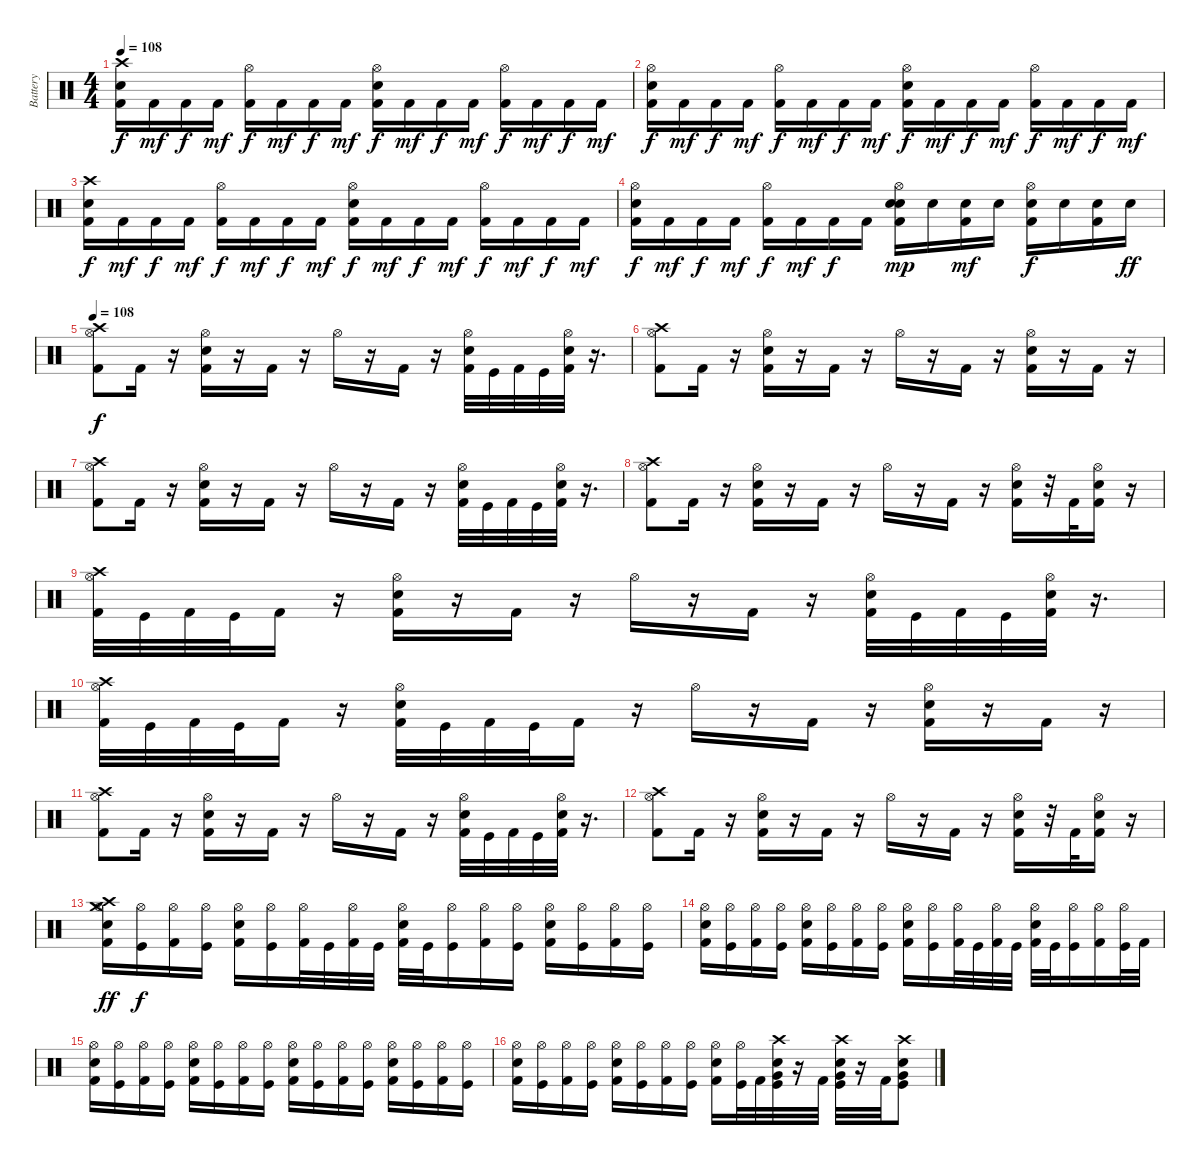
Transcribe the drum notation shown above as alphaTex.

\track ("Battery" "Battery") {instrument percussion}
\staff {score}
\articulation defaults
\ts (4 4)
\tempo 108
\clef neutral
\ks c
("Electric Snare (hit)" "Kick (hit) 2" "Crash high (hit)").16{dy f} "Kick (hit) 2".16{dy mf} "Kick (hit) 2".16{dy f} "Kick (hit) 2".16{dy mf} ("Kick (hit) 2" "Hi-Hat (open)").16{dy f} "Kick (hit) 2".16{dy mf} "Kick (hit) 2".16{dy f} "Kick (hit) 2".16{dy mf} ("Electric Snare (hit)" "Kick (hit) 2" "Hi-Hat (open)").16{dy f} "Kick (hit) 2".16{dy mf} "Kick (hit) 2".16{dy f} "Kick (hit) 2".16{dy mf} ("Hi-Hat (open)" "Kick (hit) 2").16{dy f} "Kick (hit) 2".16{dy mf} "Kick (hit) 2".16{dy f} "Kick (hit) 2".16{dy mf} |
("Hi-Hat (open)" "Kick (hit) 2" "Electric Snare (hit)").16{dy f} "Kick (hit) 2".16{dy mf} "Kick (hit) 2".16{dy f} "Kick (hit) 2".16{dy mf} ("Kick (hit) 2" "Hi-Hat (open)").16{dy f} "Kick (hit) 2".16{dy mf} "Kick (hit) 2".16{dy f} "Kick (hit) 2".16{dy mf} ("Kick (hit) 2" "Hi-Hat (open)" "Electric Snare (hit)").16{dy f} "Kick (hit) 2".16{dy mf} "Kick (hit) 2".16{dy f} "Kick (hit) 2".16{dy mf} ("Kick (hit) 2" "Hi-Hat (open)").16{dy f} "Kick (hit) 2".16{dy mf} "Kick (hit) 2".16{dy f} "Kick (hit) 2".16{dy mf} |
("Electric Snare (hit)" "Kick (hit) 2" "Crash high (hit)").16{dy f} "Kick (hit) 2".16{dy mf} "Kick (hit) 2".16{dy f} "Kick (hit) 2".16{dy mf} ("Kick (hit) 2" "Hi-Hat (open)").16{dy f} "Kick (hit) 2".16{dy mf} "Kick (hit) 2".16{dy f} "Kick (hit) 2".16{dy mf} ("Electric Snare (hit)" "Kick (hit) 2" "Hi-Hat (open)").16{dy f} "Kick (hit) 2".16{dy mf} "Kick (hit) 2".16{dy f} "Kick (hit) 2".16{dy mf} ("Hi-Hat (open)" "Kick (hit) 2").16{dy f} "Kick (hit) 2".16{dy mf} "Kick (hit) 2".16{dy f} "Kick (hit) 2".16{dy mf} |
("Hi-Hat (open)" "Kick (hit) 2" "Electric Snare (hit)").16{dy f} "Kick (hit) 2".16{dy mf} "Kick (hit) 2".16{dy f} "Kick (hit) 2".16{dy mf} ("Kick (hit) 2" "Hi-Hat (open)").16{dy f} "Kick (hit) 2".16{dy mf} "Kick (hit) 2".16{dy f} "Kick (hit) 2".16 ("Kick (hit) 2" "Hi-Hat (open)" "Electric Snare (hit)" "Electric Snare (hit)").16{dy mp} "Electric Snare (hit)".16 ("Kick (hit) 2" "Electric Snare (hit)").16{dy mf} "Electric Snare (hit)".16 ("Kick (hit) 2" "Hi-Hat (open)" "Electric Snare (hit)").16{dy f} "Electric Snare (hit)".16 ("Kick (hit) 2" "Electric Snare (hit)").16 "Electric Snare (hit)".16{dy ff} |
\tempo 108
("Kick (hit) 2" "Crash high (hit)" "Hi-Hat (open)").8{dy f} "Kick (hit) 2".16 r.16 ("Hi-Hat (open)" "Kick (hit) 2" "Electric Snare (hit)").16 r.16 "Kick (hit) 2".16 r.16 "Hi-Hat (open)".16 r.16 "Kick (hit) 2".16 r.16 ("Kick (hit) 2" "Electric Snare (hit)" "Hi-Hat (open)").32 "Kick (hit)".32 "Kick (hit) 2".32 "Kick (hit)".32 ("Hi-Hat (open)" "Electric Snare (hit)" "Kick (hit) 2").32 r.16{d} |
("Crash high (hit)" "Kick (hit) 2" "Hi-Hat (open)").8 "Kick (hit) 2".16 r.16 ("Hi-Hat (open)" "Kick (hit) 2" "Electric Snare (hit)").16 r.16 "Kick (hit) 2".16 r.16 "Hi-Hat (open)".16 r.16 "Kick (hit) 2".16 r.16 ("Kick (hit) 2" "Electric Snare (hit)" "Hi-Hat (open)").16 r.16 "Kick (hit) 2".16 r.16 |
("Kick (hit) 2" "Crash high (hit)" "Hi-Hat (open)").8 "Kick (hit) 2".16 r.16 ("Hi-Hat (open)" "Kick (hit) 2" "Electric Snare (hit)").16 r.16 "Kick (hit) 2".16 r.16 "Hi-Hat (open)".16 r.16 "Kick (hit) 2".16 r.16 ("Kick (hit) 2" "Electric Snare (hit)" "Hi-Hat (open)").32 "Kick (hit)".32 "Kick (hit) 2".32 "Kick (hit)".32 ("Hi-Hat (open)" "Electric Snare (hit)" "Kick (hit) 2").32 r.16{d} |
("Crash high (hit)" "Kick (hit) 2" "Hi-Hat (open)").8 "Kick (hit) 2".16 r.16 ("Hi-Hat (open)" "Kick (hit) 2" "Electric Snare (hit)").16 r.16 "Kick (hit) 2".16 r.16 "Hi-Hat (open)".16 r.16 "Kick (hit) 2".16 r.16 ("Kick (hit) 2" "Electric Snare (hit)" "Hi-Hat (open)").16 r.32 "Kick (hit) 2".32 ("Electric Snare (hit)" "Hi-Hat (open)" "Kick (hit) 2").16 r.16 |
("Kick (hit) 2" "Crash high (hit)" "Hi-Hat (open)").32 "Kick (hit)".32 "Kick (hit) 2".32 "Kick (hit)".32 "Kick (hit) 2".16 r.16 ("Hi-Hat (open)" "Kick (hit) 2" "Electric Snare (hit)").16 r.16 "Kick (hit) 2".16 r.16 "Hi-Hat (open)".16 r.16 "Kick (hit) 2".16 r.16 ("Kick (hit) 2" "Electric Snare (hit)" "Hi-Hat (open)").32 "Kick (hit)".32 "Kick (hit) 2".32 "Kick (hit)".32 ("Hi-Hat (open)" "Electric Snare (hit)" "Kick (hit) 2").32 r.16{d} |
("Crash high (hit)" "Kick (hit) 2" "Hi-Hat (open)").32 "Kick (hit)".32 "Kick (hit) 2".32 "Kick (hit)".32 "Kick (hit) 2".16 r.16 ("Hi-Hat (open)" "Kick (hit) 2" "Electric Snare (hit)").32 "Kick (hit)".32 "Kick (hit) 2".32 "Kick (hit)".32 "Kick (hit) 2".16 r.16 "Hi-Hat (open)".16 r.16 "Kick (hit) 2".16 r.16 ("Kick (hit) 2" "Electric Snare (hit)" "Hi-Hat (open)").16 r.16 "Kick (hit) 2".16 r.16 |
("Kick (hit) 2" "Crash high (hit)" "Hi-Hat (open)").8 "Kick (hit) 2".16 r.16 ("Hi-Hat (open)" "Kick (hit) 2" "Electric Snare (hit)").16 r.16 "Kick (hit) 2".16 r.16 "Hi-Hat (open)".16 r.16 "Kick (hit) 2".16 r.16 ("Kick (hit) 2" "Electric Snare (hit)" "Hi-Hat (open)").32 "Kick (hit)".32 "Kick (hit) 2".32 "Kick (hit)".32 ("Hi-Hat (open)" "Electric Snare (hit)" "Kick (hit) 2").32 r.16{d} |
("Crash high (hit)" "Kick (hit) 2" "Hi-Hat (open)").8 "Kick (hit) 2".16 r.16 ("Hi-Hat (open)" "Kick (hit) 2" "Electric Snare (hit)").16 r.16 "Kick (hit) 2".16 r.16 "Hi-Hat (open)".16 r.16 "Kick (hit) 2".16 r.16 ("Kick (hit) 2" "Electric Snare (hit)" "Hi-Hat (open)").16 r.32 "Kick (hit) 2".32 ("Electric Snare (hit)" "Hi-Hat (open)" "Kick (hit) 2").16 r.16 |
("Kick (hit) 2" "Electric Snare (hit)" "Hi-Hat (open)" "Crash high (hit)" "Crash medium (hit)").16{dy ff} ("Kick (hit)" "Hi-Hat (open)").16{dy f} ("Kick (hit) 2" "Hi-Hat (open)").16 ("Hi-Hat (open)" "Kick (hit)").16 ("Electric Snare (hit)" "Hi-Hat (open)" "Kick (hit) 2").16 ("Kick (hit)" "Hi-Hat (open)").16 ("Kick (hit) 2" "Hi-Hat (open)").32 "Kick (hit)".32 ("Hi-Hat (open)" "Kick (hit) 2").32 "Kick (hit)".32 ("Electric Snare (hit)" "Kick (hit) 2" "Hi-Hat (open)").32 "Kick (hit)".32 ("Hi-Hat (open)" "Kick (hit)").16 ("Hi-Hat (open)" "Kick (hit) 2").16 ("Hi-Hat (open)" "Kick (hit)").16 ("Kick (hit) 2" "Hi-Hat (open)" "Electric Snare (hit)").16 ("Hi-Hat (open)" "Kick (hit)").16 ("Hi-Hat (open)" "Kick (hit) 2").16 ("Kick (hit)" "Hi-Hat (open)").16 |
("Electric Snare (hit)" "Kick (hit) 2" "Hi-Hat (open)").16 ("Kick (hit)" "Hi-Hat (open)").16 ("Hi-Hat (open)" "Kick (hit) 2").16 ("Kick (hit)" "Hi-Hat (open)").16 ("Kick (hit) 2" "Electric Snare (hit)" "Hi-Hat (open)").16 ("Kick (hit)" "Hi-Hat (open)").16 ("Kick (hit) 2" "Hi-Hat (open)").16 ("Hi-Hat (open)" "Kick (hit)").16 ("Hi-Hat (open)" "Kick (hit) 2" "Electric Snare (hit)").16 ("Kick (hit)" "Hi-Hat (open)").16 ("Kick (hit) 2" "Hi-Hat (open)").32 "Kick (hit)".32 ("Kick (hit) 2" "Hi-Hat (open)").32 "Kick (hit)".32 ("Kick (hit) 2" "Electric Snare (hit)" "Hi-Hat (open)").32 "Kick (hit)".32 ("Hi-Hat (open)" "Kick (hit)").16 ("Kick (hit) 2" "Hi-Hat (open)").16 ("Hi-Hat (open)" "Kick (hit)").32 "Kick (hit) 2".32 |
("Hi-Hat (open)" "Electric Snare (hit)" "Kick (hit) 2").16 ("Hi-Hat (open)" "Kick (hit)").16 ("Kick (hit) 2" "Hi-Hat (open)").16 ("Hi-Hat (open)" "Kick (hit)").16 ("Kick (hit) 2" "Hi-Hat (open)" "Electric Snare (hit)").16 ("Kick (hit)" "Hi-Hat (open)").16 ("Kick (hit) 2" "Hi-Hat (open)").16 ("Kick (hit)" "Hi-Hat (open)").16 ("Hi-Hat (open)" "Kick (hit) 2" "Electric Snare (hit)").16 ("Hi-Hat (open)" "Kick (hit)").16 ("Hi-Hat (open)" "Kick (hit) 2").16 ("Hi-Hat (open)" "Kick (hit)").16 ("Kick (hit) 2" "Electric Snare (hit)" "Hi-Hat (open)").16 ("Hi-Hat (open)" "Kick (hit)").16 ("Kick (hit) 2" "Hi-Hat (open)").16 ("Hi-Hat (open)" "Kick (hit)").16 |
("Hi-Hat (open)" "Kick (hit) 2" "Electric Snare (hit)").16 ("Kick (hit)" "Hi-Hat (open)").16 ("Kick (hit) 2" "Hi-Hat (open)").16 ("Hi-Hat (open)" "Kick (hit)").16 ("Hi-Hat (open)" "Electric Snare (hit)" "Kick (hit) 2").16 ("Hi-Hat (open)" "Kick (hit)").16 ("Kick (hit) 2" "Hi-Hat (open)").16 ("Kick (hit)" "Hi-Hat (open)").16 ("Electric Snare (hit)" "Hi-Hat (open)" "Kick (hit) 2").16 ("Hi-Hat (open)" "Kick (hit)").32 "Kick (hit) 2".32 ("Snare (hit) 2" "Very Low Tom (hit)" "Kick (hit)" "Crash high (hit)").32 r.16 "Kick (hit) 2".32 ("Crash high (hit)" "Kick (hit)" "Very Low Tom (hit)" "Snare (hit) 2").32 r.16 "Kick (hit) 2".32 ("Very Low Tom (hit)" "Crash high (hit)" "Snare (hit) 2" "Kick (hit)").8
